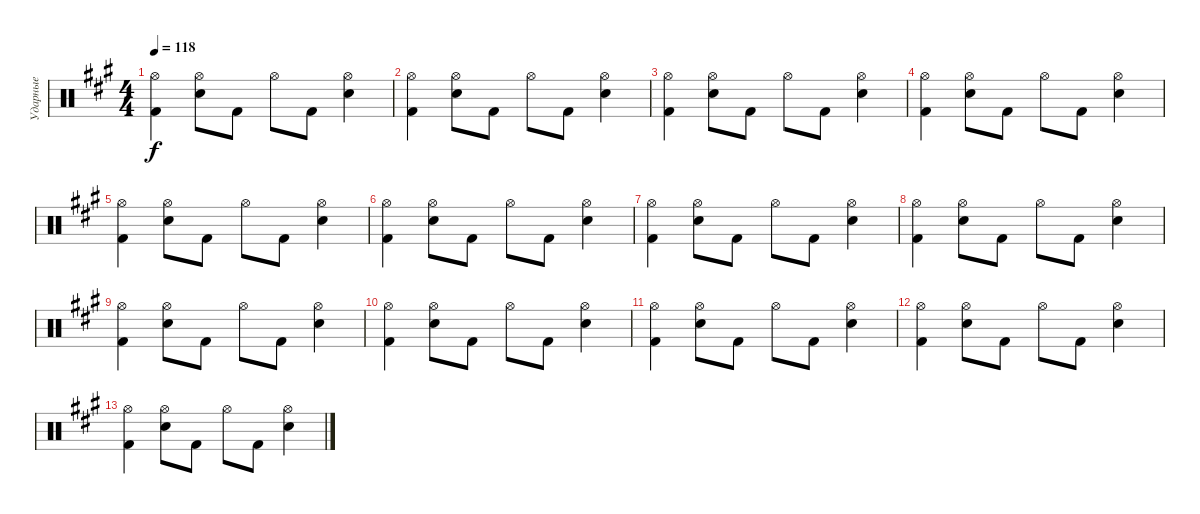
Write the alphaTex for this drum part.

\track ("Ударные" "Ударные") {instrument percussion}
\staff {score}
\articulation defaults
\ts (4 4)
\tempo 118
\clef neutral
\ks a
("Kick (hit) 2" "Hi-Hat (open)").4{dy f} ("Snare (hit) 2" "Hi-Hat (open)").8 "Kick (hit) 2".8 "Hi-Hat (open)".8 "Kick (hit) 2".8 ("Snare (hit) 2" "Hi-Hat (open)").4 |
("Kick (hit) 2" "Hi-Hat (open)").4 ("Snare (hit) 2" "Hi-Hat (open)").8 "Kick (hit) 2".8 "Hi-Hat (open)".8 "Kick (hit) 2".8 ("Snare (hit) 2" "Hi-Hat (open)").4 |
("Kick (hit) 2" "Hi-Hat (open)").4 ("Snare (hit) 2" "Hi-Hat (open)").8 "Kick (hit) 2".8 "Hi-Hat (open)".8 "Kick (hit) 2".8 ("Snare (hit) 2" "Hi-Hat (open)").4 |
("Kick (hit) 2" "Hi-Hat (open)").4 ("Snare (hit) 2" "Hi-Hat (open)").8 "Kick (hit) 2".8 "Hi-Hat (open)".8 "Kick (hit) 2".8 ("Snare (hit) 2" "Hi-Hat (open)").4 |
("Kick (hit) 2" "Hi-Hat (open)").4 ("Snare (hit) 2" "Hi-Hat (open)").8 "Kick (hit) 2".8 "Hi-Hat (open)".8 "Kick (hit) 2".8 ("Snare (hit) 2" "Hi-Hat (open)").4 |
("Kick (hit) 2" "Hi-Hat (open)").4 ("Snare (hit) 2" "Hi-Hat (open)").8 "Kick (hit) 2".8 "Hi-Hat (open)".8 "Kick (hit) 2".8 ("Snare (hit) 2" "Hi-Hat (open)").4 |
("Kick (hit) 2" "Hi-Hat (open)").4 ("Snare (hit) 2" "Hi-Hat (open)").8 "Kick (hit) 2".8 "Hi-Hat (open)".8 "Kick (hit) 2".8 ("Snare (hit) 2" "Hi-Hat (open)").4 |
("Kick (hit) 2" "Hi-Hat (open)").4 ("Snare (hit) 2" "Hi-Hat (open)").8 "Kick (hit) 2".8 "Hi-Hat (open)".8 "Kick (hit) 2".8 ("Snare (hit) 2" "Hi-Hat (open)").4 |
("Kick (hit) 2" "Hi-Hat (open)").4 ("Snare (hit) 2" "Hi-Hat (open)").8 "Kick (hit) 2".8 "Hi-Hat (open)".8 "Kick (hit) 2".8 ("Snare (hit) 2" "Hi-Hat (open)").4 |
("Kick (hit) 2" "Hi-Hat (open)").4 ("Snare (hit) 2" "Hi-Hat (open)").8 "Kick (hit) 2".8 "Hi-Hat (open)".8 "Kick (hit) 2".8 ("Snare (hit) 2" "Hi-Hat (open)").4 |
("Kick (hit) 2" "Hi-Hat (open)").4 ("Snare (hit) 2" "Hi-Hat (open)").8 "Kick (hit) 2".8 "Hi-Hat (open)".8 "Kick (hit) 2".8 ("Snare (hit) 2" "Hi-Hat (open)").4 |
("Kick (hit) 2" "Hi-Hat (open)").4 ("Snare (hit) 2" "Hi-Hat (open)").8 "Kick (hit) 2".8 "Hi-Hat (open)".8 "Kick (hit) 2".8 ("Snare (hit) 2" "Hi-Hat (open)").4 |
("Kick (hit) 2" "Hi-Hat (open)").4 ("Snare (hit) 2" "Hi-Hat (open)").8 "Kick (hit) 2".8 "Hi-Hat (open)".8 "Kick (hit) 2".8 ("Snare (hit) 2" "Hi-Hat (open)").4
